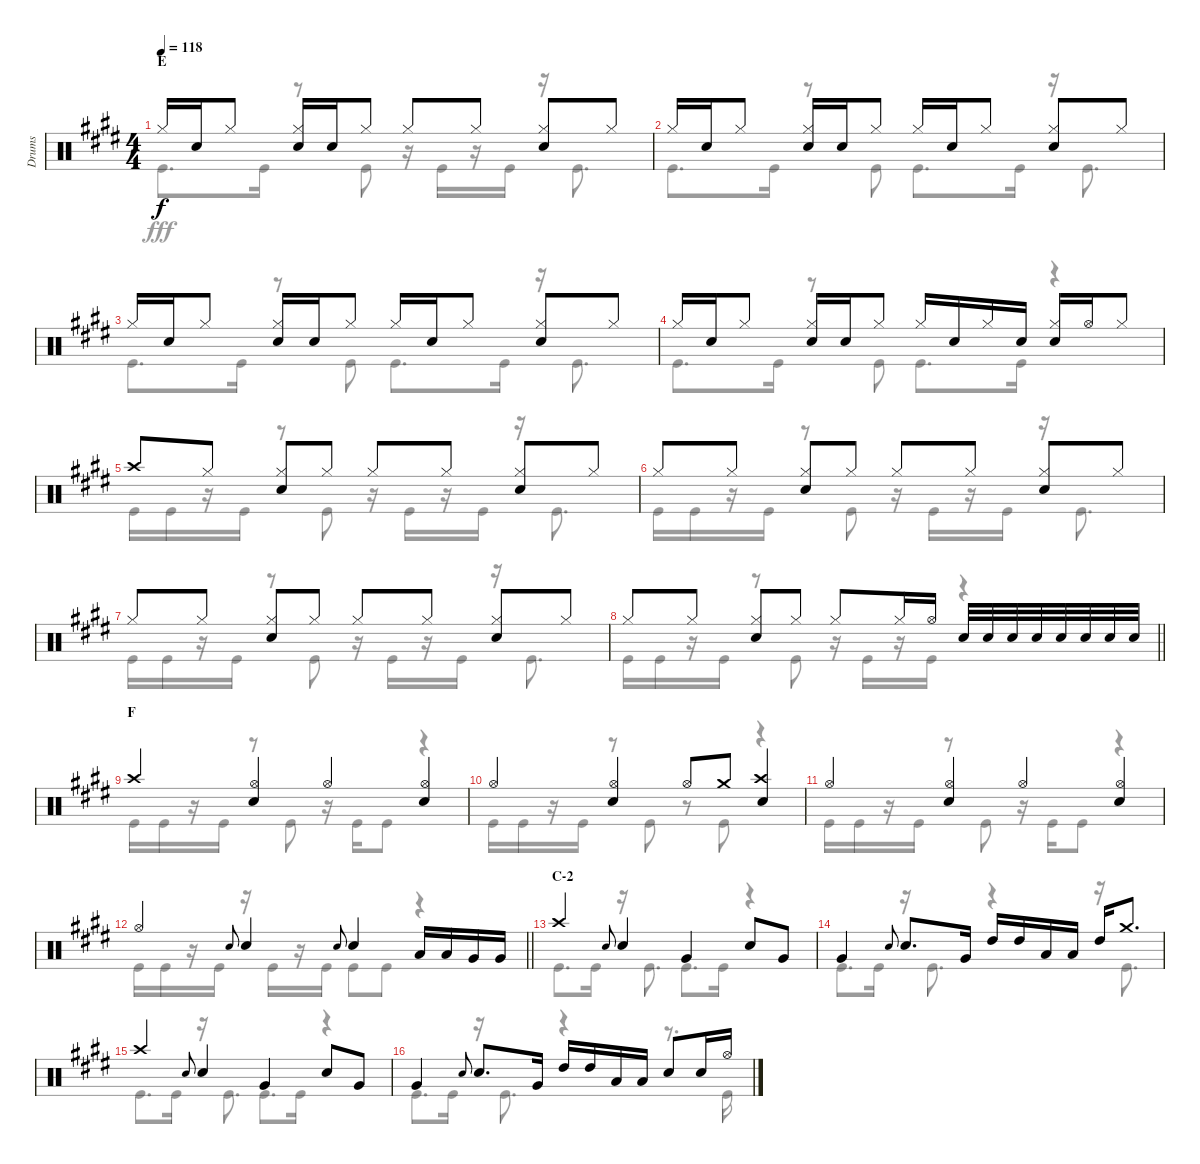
\track ("Drums" "Drums") {instrument percussion}
\staff {score}
\articulation defaults
\voice
\ts (4 4)
\section ("" "E")
\tempo 118
\clef neutral
\ks e "Hi-Hat (closed)".16{dy f} "Snare (hit) 2".16 "Hi-Hat (closed)".8
("Hi-Hat (closed)" "Snare (hit) 2").16 "Snare (hit) 2".16 "Hi-Hat (closed)".8 "Hi-Hat (closed)".8 "Hi-Hat (closed)".8 ("Hi-Hat (closed)" "Snare (hit) 2").8 "Hi-Hat (closed)".8 |
"Hi-Hat (closed)".16 "Snare (hit) 2".16 "Hi-Hat (closed)".8 ("Hi-Hat (closed)" "Snare (hit) 2").16 "Snare (hit) 2".16 "Hi-Hat (closed)".8 "Hi-Hat (closed)".16 "Snare (hit) 2".16 "Hi-Hat (closed)".8 ("Hi-Hat (closed)" "Snare (hit) 2").8 "Hi-Hat (closed)".8 |
"Hi-Hat (closed)".16 "Snare (hit) 2".16 "Hi-Hat (closed)".8 ("Hi-Hat (closed)" "Snare (hit) 2").16 "Snare (hit) 2".16 "Hi-Hat (closed)".8 "Hi-Hat (closed)".16 "Snare (hit) 2".16 "Hi-Hat (closed)".8 ("Hi-Hat (closed)" "Snare (hit) 2").8 "Hi-Hat (closed)".8 |
"Hi-Hat (closed)".16 "Snare (hit) 2".16 "Hi-Hat (closed)".8 ("Hi-Hat (closed)" "Snare (hit) 2").16 "Snare (hit) 2".16 "Hi-Hat (closed)".8 "Hi-Hat (closed)".16 "Snare (hit) 2".16 "Hi-Hat (closed)".16 "Snare (hit) 2".16 ("Hi-Hat (closed)" "Snare (hit) 2").16 "Hi-Hat (open)".16 "Hi-Hat (closed)".8 |
"Crash high (hit)".8 "Hi-Hat (closed)".8 ("Hi-Hat (closed)" "Snare (hit) 2").8 "Hi-Hat (closed)".8 "Hi-Hat (closed)".8 "Hi-Hat (closed)".8 ("Hi-Hat (closed)" "Snare (hit) 2").8 "Hi-Hat (closed)".8 |
"Hi-Hat (closed)".8 "Hi-Hat (closed)".8 ("Hi-Hat (closed)" "Snare (hit) 2").8 "Hi-Hat (closed)".8 "Hi-Hat (closed)".8 "Hi-Hat (closed)".8 ("Hi-Hat (closed)" "Snare (hit) 2").8 "Hi-Hat (closed)".8 |
"Hi-Hat (closed)".8 "Hi-Hat (closed)".8 ("Hi-Hat (closed)" "Snare (hit) 2").8 "Hi-Hat (closed)".8 "Hi-Hat (closed)".8 "Hi-Hat (closed)".8 ("Hi-Hat (closed)" "Snare (hit) 2").8 "Hi-Hat (closed)".8 |
\barLineRight lightlight "Hi-Hat (closed)".8 "Hi-Hat (closed)".8
("Hi-Hat (closed)" "Snare (hit) 2").8 "Hi-Hat (closed)".8 "Hi-Hat (closed)".8 "Hi-Hat (closed)".16 "Hi-Hat (open)".16 "Snare (hit) 2".32 "Snare (hit) 2".32 "Snare (hit) 2".32 "Snare (hit) 2".32 "Snare (hit) 2".32 "Snare (hit) 2".32 "Snare (hit) 2".32 "Snare (hit) 2".32 |
\section ("" "F")
"Crash high (hit)".4 ("Hi-Hat (open)" "Snare (hit) 2").4 "Hi-Hat (open)".4 ("Hi-Hat (open)" "Snare (hit) 2").4 |
"Hi-Hat (open)".4 ("Hi-Hat (open)" "Snare (hit) 2").4 "Hi-Hat (open)".8 "Crash medium (hit)".8 ("Crash high (hit)" "Snare (hit) 2").4 |
"Hi-Hat (open)".4 ("Hi-Hat (open)" "Snare (hit) 2").4 "Hi-Hat (open)".4 ("Hi-Hat (open)" "Snare (hit) 2").4 |
\barLineRight lightlight "Hi-Hat (open)".4 "Snare (hit) 2".8{gr onbeat} "Snare (hit) 2".4 "Snare (hit) 2".8{gr onbeat} "Snare (hit) 2".4 "Low Tom (hit)".16 "Low Tom (hit)".16 "Very Low Tom (hit)".16 "Very Low Tom (hit)".16
|
\section ("" "C-2")
"Crash high (hit)".4 "Snare (hit) 2".8{gr onbeat} "Snare (hit) 2".4 "Very Low Tom (hit)".4 "Snare (hit) 2".8 "Very Low Tom (hit)".8 |
"Very Low Tom (hit)".4 "Snare (hit) 2".8{gr onbeat} "Snare (hit) 2".8{d} "Very Low Tom (hit)".16 "High Tom (hit)".16 "High Tom (hit)".16 "Low Tom (hit)".16 "Low Tom (hit)".16 "High Tom (hit)".16 "Crash medium (hit)".8{d} |
"Crash high (hit)".4 "Snare (hit) 2".8{gr onbeat} "Snare (hit) 2".4 "Very Low Tom (hit)".4 "Snare (hit) 2".8 "Very Low Tom (hit)".8 |
"Very Low Tom (hit)".4 "Snare (hit) 2".8{gr onbeat} "Snare (hit) 2".8{d} "Very Low Tom (hit)".16 "High Tom (hit)".16 "High Tom (hit)".16 "Low Tom (hit)".16 "Low Tom (hit)".16 "Snare (hit) 2".8 "Snare (hit) 2".16 "Hi-Hat (open)".16
\voice
\clef neutral
\ottava regular
\simile none
\ks e "Kick (hit)".8{d dy fff} "Kick (hit)".16
r.8 "Kick (hit)".8 r.16 "Kick (hit)".16 r.16 "Kick (hit)".16 r.16 "Kick (hit)".8{d} |
"Kick (hit)".8{d} "Kick (hit)".16 r.8 "Kick (hit)".8 "Kick (hit)".8{d} "Kick (hit)".16 r.16 "Kick (hit)".8{d} |
"Kick (hit)".8{d} "Kick (hit)".16 r.8 "Kick (hit)".8 "Kick (hit)".8{d} "Kick (hit)".16 r.16 "Kick (hit)".8{d} |
"Kick (hit)".8{d} "Kick (hit)".16 r.8 "Kick (hit)".8 "Kick (hit)".8{d} "Kick (hit)".16 r.4 |
"Kick (hit)".16 "Kick (hit)".16 r.16 "Kick (hit)".16 r.8 "Kick (hit)".8 r.16 "Kick (hit)".16 r.16 "Kick (hit)".16 r.16 "Kick (hit)".8{d} |
"Kick (hit)".16 "Kick (hit)".16 r.16 "Kick (hit)".16 r.8 "Kick (hit)".8 r.16 "Kick (hit)".16 r.16 "Kick (hit)".16 r.16 "Kick (hit)".8{d} |
"Kick (hit)".16 "Kick (hit)".16 r.16 "Kick (hit)".16 r.8 "Kick (hit)".8 r.16 "Kick (hit)".16 r.16 "Kick (hit)".16 r.16 "Kick (hit)".8{d} |
\barLineRight lightlight "Kick (hit)".16 "Kick (hit)".16
r.16 "Kick (hit)".16 r.8 "Kick (hit)".8 r.16 "Kick (hit)".16 r.16 "Kick (hit)".16 r.4 |
"Kick (hit)".16 "Kick (hit)".16 r.16 "Kick (hit)".16 r.8 "Kick (hit)".8 r.16 "Kick (hit)".16 "Kick (hit)".8 r.4 |
"Kick (hit)".16 "Kick (hit)".16 r.16 "Kick (hit)".16 r.8 "Kick (hit)".8 r.8 "Kick (hit)".8 r.4 |
"Kick (hit)".16 "Kick (hit)".16 r.16 "Kick (hit)".16 r.8 "Kick (hit)".8 r.16 "Kick (hit)".16 "Kick (hit)".8 r.4 |
\barLineRight lightlight "Kick (hit)".16 "Kick (hit)".16
r.16 "Kick (hit)".16 r.16 "Kick (hit)".16 r.16 "Kick (hit)".16 "Kick (hit)".8 "Kick (hit)".8 r.4 |
"Kick (hit)".8{d} "Kick (hit)".16 r.16 "Kick (hit)".8{d} "Kick (hit)".8{d} "Kick (hit)".16 r.4 |
"Kick (hit)".8{d} "Kick (hit)".16 r.16 "Kick (hit)".8{d} r.4 r.16 "Kick (hit)".8{d} |
"Kick (hit)".8{d} "Kick (hit)".16 r.16 "Kick (hit)".8{d} "Kick (hit)".8{d} "Kick (hit)".16 r.4 |
"Kick (hit)".8{d} "Kick (hit)".16 r.16 "Kick (hit)".8{d} r.4 r.8{d} "Kick (hit)".16
